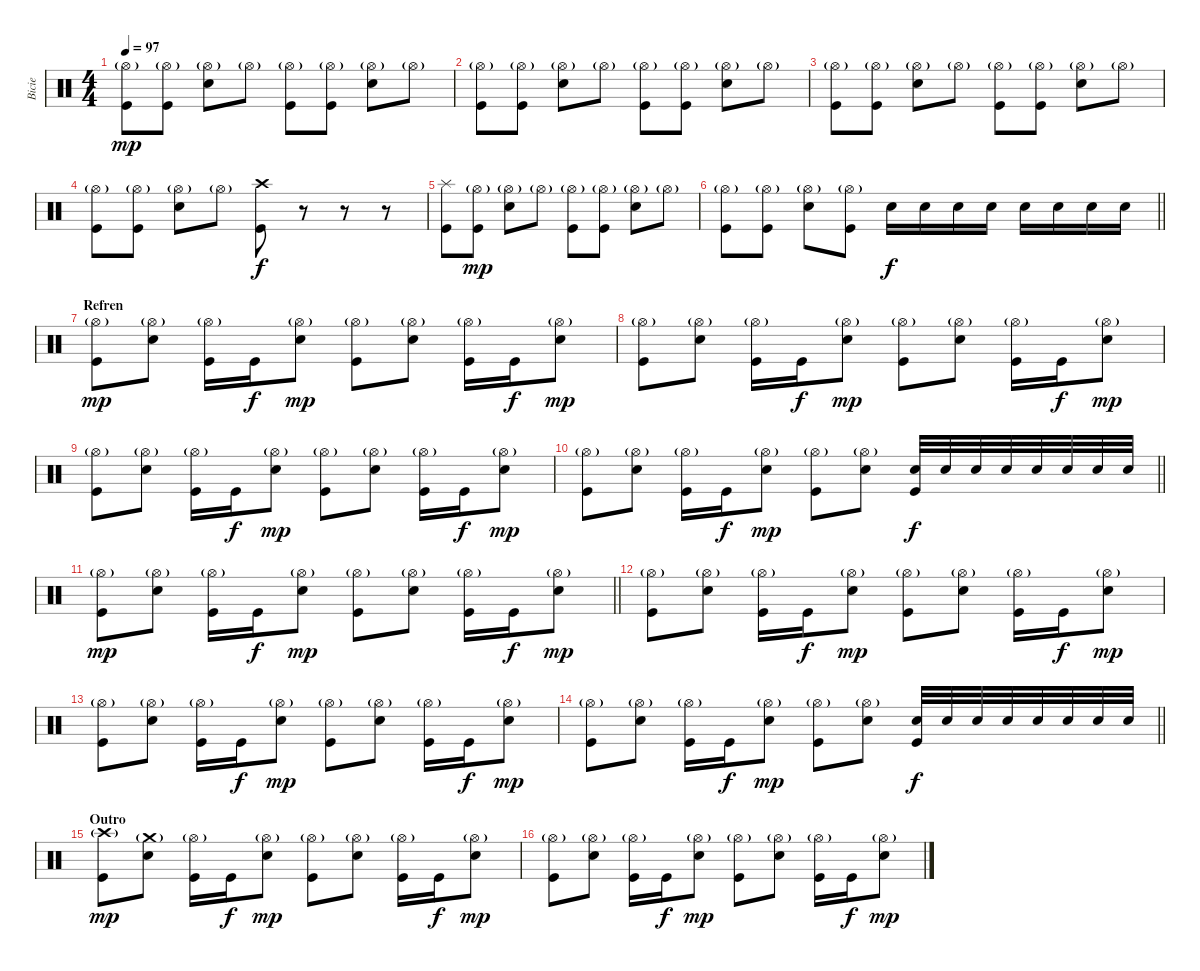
\track ("Bicie" "Bicie") {instrument percussion}
\staff {score}
\articulation defaults
\ts (4 4)
\tempo 97
\clef neutral
\ks c
("Hi-Hat (open)"{g} "Kick (hit)").8{dy mp} ("Hi-Hat (open)"{g} "Kick (hit)").8 ("Hi-Hat (open)"{g} "Electric Snare (hit)").8 "Hi-Hat (open)"{g}.8 ("Hi-Hat (open)"{g} "Kick (hit)").8 ("Hi-Hat (open)"{g} "Kick (hit)").8 ("Hi-Hat (open)"{g} "Electric Snare (hit)").8 "Hi-Hat (open)"{g}.8 |
("Hi-Hat (open)"{g} "Kick (hit)").8 ("Hi-Hat (open)"{g} "Kick (hit)").8 ("Hi-Hat (open)"{g} "Electric Snare (hit)").8 "Hi-Hat (open)"{g}.8 ("Hi-Hat (open)"{g} "Kick (hit)").8 ("Hi-Hat (open)"{g} "Kick (hit)").8 ("Hi-Hat (open)"{g} "Electric Snare (hit)").8 "Hi-Hat (open)"{g}.8 |
("Hi-Hat (open)"{g} "Kick (hit)").8 ("Hi-Hat (open)"{g} "Kick (hit)").8 ("Hi-Hat (open)"{g} "Electric Snare (hit)").8 "Hi-Hat (open)"{g}.8 ("Hi-Hat (open)"{g} "Kick (hit)").8 ("Hi-Hat (open)"{g} "Kick (hit)").8 ("Hi-Hat (open)"{g} "Electric Snare (hit)").8 "Hi-Hat (open)"{g}.8 |
("Hi-Hat (open)"{g} "Kick (hit)").8 ("Hi-Hat (open)"{g} "Kick (hit)").8 ("Hi-Hat (open)"{g} "Electric Snare (hit)").8 "Hi-Hat (open)"{g}.8 ("Crash high (hit)" "Kick (hit)").8{dy f} r.8 r.8 r.8 |
("Splash (hit)" "Kick (hit)").8 ("Hi-Hat (open)"{g} "Kick (hit)").8{dy mp} ("Hi-Hat (open)"{g} "Electric Snare (hit)").8 "Hi-Hat (open)"{g}.8 ("Hi-Hat (open)"{g} "Kick (hit)").8 ("Hi-Hat (open)"{g} "Kick (hit)").8 ("Hi-Hat (open)"{g} "Electric Snare (hit)").8 "Hi-Hat (open)"{g}.8 |
\barLineRight lightlight
("Hi-Hat (open)"{g} "Kick (hit)").8 ("Hi-Hat (open)"{g} "Kick (hit)").8 ("Hi-Hat (open)"{g} "Electric Snare (hit)").8 ("Hi-Hat (open)"{g} "Kick (hit)").8 "Electric Snare (hit)".16{dy f} "Electric Snare (hit)".16 "Electric Snare (hit)".16 "Electric Snare (hit)".16 "Electric Snare (hit)".16 "Electric Snare (hit)".16 "Electric Snare (hit)".16 "Electric Snare (hit)".16 |
\section ("" "Refren")
("Hi-Hat (open)"{g} "Kick (hit)").8{dy mp} ("Hi-Hat (open)"{g} "Electric Snare (hit)").8 ("Hi-Hat (open)"{g} "Kick (hit)").16 "Kick (hit)".16{dy f} ("Hi-Hat (open)"{g} "Electric Snare (hit)").8{dy mp} ("Hi-Hat (open)"{g} "Kick (hit)").8 ("Hi-Hat (open)"{g} "Electric Snare (hit)").8 ("Hi-Hat (open)"{g} "Kick (hit)").16 "Kick (hit)".16{dy f} ("Hi-Hat (open)"{g} "Electric Snare (hit)").8{dy mp} |
("Hi-Hat (open)"{g} "Kick (hit)").8 ("Hi-Hat (open)"{g} "Electric Snare (hit)").8 ("Hi-Hat (open)"{g} "Kick (hit)").16 "Kick (hit)".16{dy f} ("Hi-Hat (open)"{g} "Electric Snare (hit)").8{dy mp} ("Hi-Hat (open)"{g} "Kick (hit)").8 ("Hi-Hat (open)"{g} "Electric Snare (hit)").8 ("Hi-Hat (open)"{g} "Kick (hit)").16 "Kick (hit)".16{dy f} ("Hi-Hat (open)"{g} "Electric Snare (hit)").8{dy mp} |
("Hi-Hat (open)"{g} "Kick (hit)").8 ("Hi-Hat (open)"{g} "Electric Snare (hit)").8 ("Hi-Hat (open)"{g} "Kick (hit)").16 "Kick (hit)".16{dy f} ("Hi-Hat (open)"{g} "Electric Snare (hit)").8{dy mp} ("Hi-Hat (open)"{g} "Kick (hit)").8 ("Hi-Hat (open)"{g} "Electric Snare (hit)").8 ("Hi-Hat (open)"{g} "Kick (hit)").16 "Kick (hit)".16{dy f} ("Hi-Hat (open)"{g} "Electric Snare (hit)").8{dy mp} |
\barLineRight lightlight
("Hi-Hat (open)"{g} "Kick (hit)").8 ("Hi-Hat (open)"{g} "Electric Snare (hit)").8 ("Hi-Hat (open)"{g} "Kick (hit)").16 "Kick (hit)".16{dy f} ("Hi-Hat (open)"{g} "Electric Snare (hit)").8{dy mp} ("Hi-Hat (open)"{g} "Kick (hit)").8 ("Hi-Hat (open)"{g} "Electric Snare (hit)").8 ("Electric Snare (hit)" "Kick (hit)").32{dy f} "Electric Snare (hit)".32 "Electric Snare (hit)".32 "Electric Snare (hit)".32 "Electric Snare (hit)".32 "Electric Snare (hit)".32 "Electric Snare (hit)".32 "Electric Snare (hit)".32 |
\barLineRight lightlight
("Hi-Hat (open)"{g} "Kick (hit)").8{dy mp} ("Hi-Hat (open)"{g} "Electric Snare (hit)").8 ("Hi-Hat (open)"{g} "Kick (hit)").16 "Kick (hit)".16{dy f} ("Hi-Hat (open)"{g} "Electric Snare (hit)").8{dy mp} ("Hi-Hat (open)"{g} "Kick (hit)").8 ("Hi-Hat (open)"{g} "Electric Snare (hit)").8 ("Hi-Hat (open)"{g} "Kick (hit)").16 "Kick (hit)".16{dy f} ("Hi-Hat (open)"{g} "Electric Snare (hit)").8{dy mp} |
("Hi-Hat (open)"{g} "Kick (hit)").8 ("Hi-Hat (open)"{g} "Electric Snare (hit)").8 ("Hi-Hat (open)"{g} "Kick (hit)").16 "Kick (hit)".16{dy f} ("Hi-Hat (open)"{g} "Electric Snare (hit)").8{dy mp} ("Hi-Hat (open)"{g} "Kick (hit)").8 ("Hi-Hat (open)"{g} "Electric Snare (hit)").8 ("Hi-Hat (open)"{g} "Kick (hit)").16 "Kick (hit)".16{dy f} ("Hi-Hat (open)"{g} "Electric Snare (hit)").8{dy mp} |
("Hi-Hat (open)"{g} "Kick (hit)").8 ("Hi-Hat (open)"{g} "Electric Snare (hit)").8 ("Hi-Hat (open)"{g} "Kick (hit)").16 "Kick (hit)".16{dy f} ("Hi-Hat (open)"{g} "Electric Snare (hit)").8{dy mp} ("Hi-Hat (open)"{g} "Kick (hit)").8 ("Hi-Hat (open)"{g} "Electric Snare (hit)").8 ("Hi-Hat (open)"{g} "Kick (hit)").16 "Kick (hit)".16{dy f} ("Hi-Hat (open)"{g} "Electric Snare (hit)").8{dy mp} |
\barLineRight lightlight
("Hi-Hat (open)"{g} "Kick (hit)").8 ("Hi-Hat (open)"{g} "Electric Snare (hit)").8 ("Hi-Hat (open)"{g} "Kick (hit)").16 "Kick (hit)".16{dy f} ("Hi-Hat (open)"{g} "Electric Snare (hit)").8{dy mp} ("Hi-Hat (open)"{g} "Kick (hit)").8 ("Hi-Hat (open)"{g} "Electric Snare (hit)").8 ("Electric Snare (hit)" "Kick (hit)").32{dy f} "Electric Snare (hit)".32 "Electric Snare (hit)".32 "Electric Snare (hit)".32 "Electric Snare (hit)".32 "Electric Snare (hit)".32 "Electric Snare (hit)".32 "Electric Snare (hit)".32 |
\section ("" "Outro")
("Crash high (hit)"{g} "Kick (hit)").8{dy mp} ("Crash medium (hit)"{g} "Electric Snare (hit)").8 ("Hi-Hat (open)"{g} "Kick (hit)").16 "Kick (hit)".16{dy f} ("Hi-Hat (open)"{g} "Electric Snare (hit)").8{dy mp} ("Hi-Hat (open)"{g} "Kick (hit)").8 ("Hi-Hat (open)"{g} "Electric Snare (hit)").8 ("Hi-Hat (open)"{g} "Kick (hit)").16 "Kick (hit)".16{dy f} ("Hi-Hat (open)"{g} "Electric Snare (hit)").8{dy mp} |
("Hi-Hat (open)"{g} "Kick (hit)").8 ("Hi-Hat (open)"{g} "Electric Snare (hit)").8 ("Hi-Hat (open)"{g} "Kick (hit)").16 "Kick (hit)".16{dy f} ("Hi-Hat (open)"{g} "Electric Snare (hit)").8{dy mp} ("Hi-Hat (open)"{g} "Kick (hit)").8 ("Hi-Hat (open)"{g} "Electric Snare (hit)").8 ("Hi-Hat (open)"{g} "Kick (hit)").16 "Kick (hit)".16{dy f} ("Hi-Hat (open)"{g} "Electric Snare (hit)").8{dy mp}
